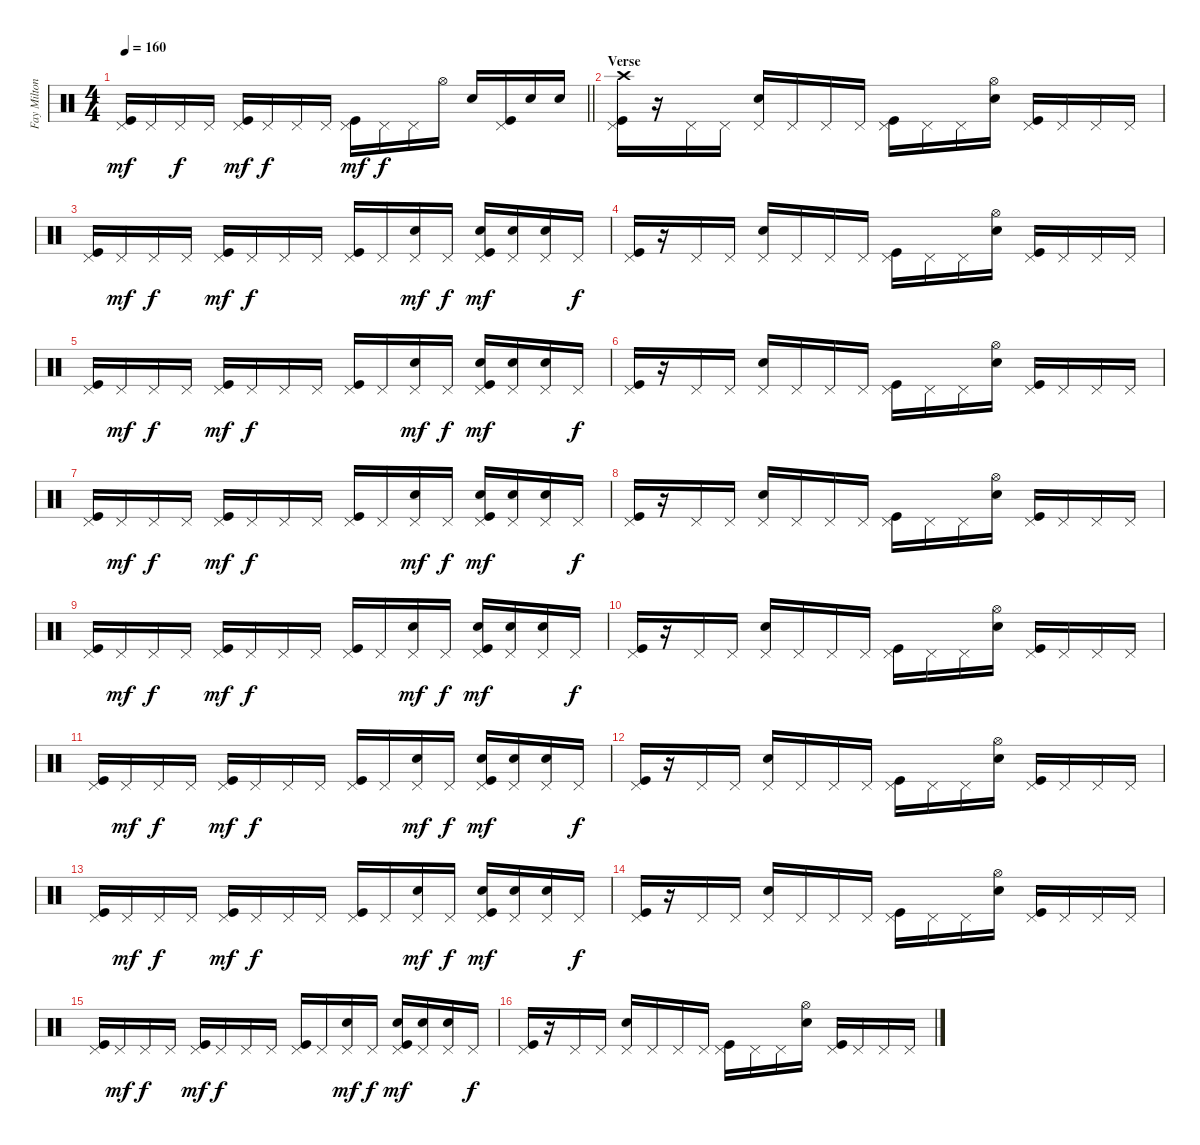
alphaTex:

\track ("Fay Milton - Drums" "Fay Milton") {instrument percussion}
\staff {score}
\articulation defaults
\ts (4 4)
\tempo 160
\clef neutral
\barLineRight lightlight
\ks c
("Pedal Hi-Hat (hit)" "Kick (hit)").16{dy mf} "Pedal Hi-Hat (hit)".16 "Pedal Hi-Hat (hit)".16{dy f} "Pedal Hi-Hat (hit)".16 ("Pedal Hi-Hat (hit)" "Kick (hit)").16{dy mf} "Pedal Hi-Hat (hit)".16{dy f} "Pedal Hi-Hat (hit)".16 "Pedal Hi-Hat (hit)".16 ("Pedal Hi-Hat (hit)" "Kick (hit)").16{dy mf} "Pedal Hi-Hat (hit)".16{dy f} "Pedal Hi-Hat (hit)".16 "Hi-Hat (open)".16 "Snare (hit) 2".16 ("Pedal Hi-Hat (hit)" "Kick (hit)").16 "Snare (hit) 2".16 "Snare (hit) 2".16 |
\section ("" "Verse")
("Crash high (hit)" "Pedal Hi-Hat (hit)" "Kick (hit)").16 r.16 "Pedal Hi-Hat (hit)".16 "Pedal Hi-Hat (hit)".16 ("Pedal Hi-Hat (hit)" "Snare (hit) 2").16 "Pedal Hi-Hat (hit)".16 "Pedal Hi-Hat (hit)".16 "Pedal Hi-Hat (hit)".16 ("Pedal Hi-Hat (hit)" "Kick (hit)").16 "Pedal Hi-Hat (hit)".16 "Pedal Hi-Hat (hit)".16 ("Hi-Hat (open)" "Snare (hit) 2").16 ("Pedal Hi-Hat (hit)" "Kick (hit)").16 "Pedal Hi-Hat (hit)".16 "Pedal Hi-Hat (hit)".16 "Pedal Hi-Hat (hit)".16 |
("Pedal Hi-Hat (hit)" "Kick (hit)").16 "Pedal Hi-Hat (hit)".16{dy mf} "Pedal Hi-Hat (hit)".16{dy f} "Pedal Hi-Hat (hit)".16 ("Pedal Hi-Hat (hit)" "Kick (hit)").16{dy mf} "Pedal Hi-Hat (hit)".16{dy f} "Pedal Hi-Hat (hit)".16 "Pedal Hi-Hat (hit)".16 ("Pedal Hi-Hat (hit)" "Kick (hit)").16 "Pedal Hi-Hat (hit)".16 ("Pedal Hi-Hat (hit)" "Snare (hit) 2").16{dy mf} "Pedal Hi-Hat (hit)".16{dy f} ("Pedal Hi-Hat (hit)" "Snare (hit) 2" "Kick (hit)").16{dy mf} ("Pedal Hi-Hat (hit)" "Snare (hit) 2").16 ("Pedal Hi-Hat (hit)" "Snare (hit) 2").16 "Pedal Hi-Hat (hit)".16{dy f} |
("Pedal Hi-Hat (hit)" "Kick (hit)").16 r.16 "Pedal Hi-Hat (hit)".16 "Pedal Hi-Hat (hit)".16 ("Pedal Hi-Hat (hit)" "Snare (hit) 2").16 "Pedal Hi-Hat (hit)".16 "Pedal Hi-Hat (hit)".16 "Pedal Hi-Hat (hit)".16 ("Pedal Hi-Hat (hit)" "Kick (hit)").16 "Pedal Hi-Hat (hit)".16 "Pedal Hi-Hat (hit)".16 ("Hi-Hat (open)" "Snare (hit) 2").16 ("Pedal Hi-Hat (hit)" "Kick (hit)").16 "Pedal Hi-Hat (hit)".16 "Pedal Hi-Hat (hit)".16 "Pedal Hi-Hat (hit)".16 |
("Pedal Hi-Hat (hit)" "Kick (hit)").16 "Pedal Hi-Hat (hit)".16{dy mf} "Pedal Hi-Hat (hit)".16{dy f} "Pedal Hi-Hat (hit)".16 ("Pedal Hi-Hat (hit)" "Kick (hit)").16{dy mf} "Pedal Hi-Hat (hit)".16{dy f} "Pedal Hi-Hat (hit)".16 "Pedal Hi-Hat (hit)".16 ("Pedal Hi-Hat (hit)" "Kick (hit)").16 "Pedal Hi-Hat (hit)".16 ("Pedal Hi-Hat (hit)" "Snare (hit) 2").16{dy mf} "Pedal Hi-Hat (hit)".16{dy f} ("Pedal Hi-Hat (hit)" "Snare (hit) 2" "Kick (hit)").16{dy mf} ("Pedal Hi-Hat (hit)" "Snare (hit) 2").16 ("Pedal Hi-Hat (hit)" "Snare (hit) 2").16 "Pedal Hi-Hat (hit)".16{dy f} |
("Pedal Hi-Hat (hit)" "Kick (hit)").16 r.16 "Pedal Hi-Hat (hit)".16 "Pedal Hi-Hat (hit)".16 ("Pedal Hi-Hat (hit)" "Snare (hit) 2").16 "Pedal Hi-Hat (hit)".16 "Pedal Hi-Hat (hit)".16 "Pedal Hi-Hat (hit)".16 ("Pedal Hi-Hat (hit)" "Kick (hit)").16 "Pedal Hi-Hat (hit)".16 "Pedal Hi-Hat (hit)".16 ("Hi-Hat (open)" "Snare (hit) 2").16 ("Pedal Hi-Hat (hit)" "Kick (hit)").16 "Pedal Hi-Hat (hit)".16 "Pedal Hi-Hat (hit)".16 "Pedal Hi-Hat (hit)".16 |
("Pedal Hi-Hat (hit)" "Kick (hit)").16 "Pedal Hi-Hat (hit)".16{dy mf} "Pedal Hi-Hat (hit)".16{dy f} "Pedal Hi-Hat (hit)".16 ("Pedal Hi-Hat (hit)" "Kick (hit)").16{dy mf} "Pedal Hi-Hat (hit)".16{dy f} "Pedal Hi-Hat (hit)".16 "Pedal Hi-Hat (hit)".16 ("Pedal Hi-Hat (hit)" "Kick (hit)").16 "Pedal Hi-Hat (hit)".16 ("Pedal Hi-Hat (hit)" "Snare (hit) 2").16{dy mf} "Pedal Hi-Hat (hit)".16{dy f} ("Pedal Hi-Hat (hit)" "Snare (hit) 2" "Kick (hit)").16{dy mf} ("Pedal Hi-Hat (hit)" "Snare (hit) 2").16 ("Pedal Hi-Hat (hit)" "Snare (hit) 2").16 "Pedal Hi-Hat (hit)".16{dy f} |
("Pedal Hi-Hat (hit)" "Kick (hit)").16 r.16 "Pedal Hi-Hat (hit)".16 "Pedal Hi-Hat (hit)".16 ("Pedal Hi-Hat (hit)" "Snare (hit) 2").16 "Pedal Hi-Hat (hit)".16 "Pedal Hi-Hat (hit)".16 "Pedal Hi-Hat (hit)".16 ("Pedal Hi-Hat (hit)" "Kick (hit)").16 "Pedal Hi-Hat (hit)".16 "Pedal Hi-Hat (hit)".16 ("Hi-Hat (open)" "Snare (hit) 2").16 ("Pedal Hi-Hat (hit)" "Kick (hit)").16 "Pedal Hi-Hat (hit)".16 "Pedal Hi-Hat (hit)".16 "Pedal Hi-Hat (hit)".16 |
("Pedal Hi-Hat (hit)" "Kick (hit)").16 "Pedal Hi-Hat (hit)".16{dy mf} "Pedal Hi-Hat (hit)".16{dy f} "Pedal Hi-Hat (hit)".16 ("Pedal Hi-Hat (hit)" "Kick (hit)").16{dy mf} "Pedal Hi-Hat (hit)".16{dy f} "Pedal Hi-Hat (hit)".16 "Pedal Hi-Hat (hit)".16 ("Pedal Hi-Hat (hit)" "Kick (hit)").16 "Pedal Hi-Hat (hit)".16 ("Pedal Hi-Hat (hit)" "Snare (hit) 2").16{dy mf} "Pedal Hi-Hat (hit)".16{dy f} ("Pedal Hi-Hat (hit)" "Snare (hit) 2" "Kick (hit)").16{dy mf} ("Pedal Hi-Hat (hit)" "Snare (hit) 2").16 ("Pedal Hi-Hat (hit)" "Snare (hit) 2").16 "Pedal Hi-Hat (hit)".16{dy f} |
("Pedal Hi-Hat (hit)" "Kick (hit)").16 r.16 "Pedal Hi-Hat (hit)".16 "Pedal Hi-Hat (hit)".16 ("Pedal Hi-Hat (hit)" "Snare (hit) 2").16 "Pedal Hi-Hat (hit)".16 "Pedal Hi-Hat (hit)".16 "Pedal Hi-Hat (hit)".16 ("Pedal Hi-Hat (hit)" "Kick (hit)").16 "Pedal Hi-Hat (hit)".16 "Pedal Hi-Hat (hit)".16 ("Hi-Hat (open)" "Snare (hit) 2").16 ("Pedal Hi-Hat (hit)" "Kick (hit)").16 "Pedal Hi-Hat (hit)".16 "Pedal Hi-Hat (hit)".16 "Pedal Hi-Hat (hit)".16 |
("Pedal Hi-Hat (hit)" "Kick (hit)").16 "Pedal Hi-Hat (hit)".16{dy mf} "Pedal Hi-Hat (hit)".16{dy f} "Pedal Hi-Hat (hit)".16 ("Pedal Hi-Hat (hit)" "Kick (hit)").16{dy mf} "Pedal Hi-Hat (hit)".16{dy f} "Pedal Hi-Hat (hit)".16 "Pedal Hi-Hat (hit)".16 ("Pedal Hi-Hat (hit)" "Kick (hit)").16 "Pedal Hi-Hat (hit)".16 ("Pedal Hi-Hat (hit)" "Snare (hit) 2").16{dy mf} "Pedal Hi-Hat (hit)".16{dy f} ("Pedal Hi-Hat (hit)" "Snare (hit) 2" "Kick (hit)").16{dy mf} ("Pedal Hi-Hat (hit)" "Snare (hit) 2").16 ("Pedal Hi-Hat (hit)" "Snare (hit) 2").16 "Pedal Hi-Hat (hit)".16{dy f} |
("Pedal Hi-Hat (hit)" "Kick (hit)").16 r.16 "Pedal Hi-Hat (hit)".16 "Pedal Hi-Hat (hit)".16 ("Pedal Hi-Hat (hit)" "Snare (hit) 2").16 "Pedal Hi-Hat (hit)".16 "Pedal Hi-Hat (hit)".16 "Pedal Hi-Hat (hit)".16 ("Pedal Hi-Hat (hit)" "Kick (hit)").16 "Pedal Hi-Hat (hit)".16 "Pedal Hi-Hat (hit)".16 ("Hi-Hat (open)" "Snare (hit) 2").16 ("Pedal Hi-Hat (hit)" "Kick (hit)").16 "Pedal Hi-Hat (hit)".16 "Pedal Hi-Hat (hit)".16 "Pedal Hi-Hat (hit)".16 |
("Pedal Hi-Hat (hit)" "Kick (hit)").16 "Pedal Hi-Hat (hit)".16{dy mf} "Pedal Hi-Hat (hit)".16{dy f} "Pedal Hi-Hat (hit)".16 ("Pedal Hi-Hat (hit)" "Kick (hit)").16{dy mf} "Pedal Hi-Hat (hit)".16{dy f} "Pedal Hi-Hat (hit)".16 "Pedal Hi-Hat (hit)".16 ("Pedal Hi-Hat (hit)" "Kick (hit)").16 "Pedal Hi-Hat (hit)".16 ("Pedal Hi-Hat (hit)" "Snare (hit) 2").16{dy mf} "Pedal Hi-Hat (hit)".16{dy f} ("Pedal Hi-Hat (hit)" "Snare (hit) 2" "Kick (hit)").16{dy mf} ("Pedal Hi-Hat (hit)" "Snare (hit) 2").16 ("Pedal Hi-Hat (hit)" "Snare (hit) 2").16 "Pedal Hi-Hat (hit)".16{dy f} |
("Pedal Hi-Hat (hit)" "Kick (hit)").16 r.16 "Pedal Hi-Hat (hit)".16 "Pedal Hi-Hat (hit)".16 ("Pedal Hi-Hat (hit)" "Snare (hit) 2").16 "Pedal Hi-Hat (hit)".16 "Pedal Hi-Hat (hit)".16 "Pedal Hi-Hat (hit)".16 ("Pedal Hi-Hat (hit)" "Kick (hit)").16 "Pedal Hi-Hat (hit)".16 "Pedal Hi-Hat (hit)".16 ("Hi-Hat (open)" "Snare (hit) 2").16 ("Pedal Hi-Hat (hit)" "Kick (hit)").16 "Pedal Hi-Hat (hit)".16 "Pedal Hi-Hat (hit)".16 "Pedal Hi-Hat (hit)".16 |
("Pedal Hi-Hat (hit)" "Kick (hit)").16 "Pedal Hi-Hat (hit)".16{dy mf} "Pedal Hi-Hat (hit)".16{dy f} "Pedal Hi-Hat (hit)".16 ("Pedal Hi-Hat (hit)" "Kick (hit)").16{dy mf} "Pedal Hi-Hat (hit)".16{dy f} "Pedal Hi-Hat (hit)".16 "Pedal Hi-Hat (hit)".16 ("Pedal Hi-Hat (hit)" "Kick (hit)").16 "Pedal Hi-Hat (hit)".16 ("Pedal Hi-Hat (hit)" "Snare (hit) 2").16{dy mf} "Pedal Hi-Hat (hit)".16{dy f} ("Pedal Hi-Hat (hit)" "Snare (hit) 2" "Kick (hit)").16{dy mf} ("Pedal Hi-Hat (hit)" "Snare (hit) 2").16 ("Pedal Hi-Hat (hit)" "Snare (hit) 2").16 "Pedal Hi-Hat (hit)".16{dy f} |
("Pedal Hi-Hat (hit)" "Kick (hit)").16 r.16 "Pedal Hi-Hat (hit)".16 "Pedal Hi-Hat (hit)".16 ("Pedal Hi-Hat (hit)" "Snare (hit) 2").16 "Pedal Hi-Hat (hit)".16 "Pedal Hi-Hat (hit)".16 "Pedal Hi-Hat (hit)".16 ("Pedal Hi-Hat (hit)" "Kick (hit)").16 "Pedal Hi-Hat (hit)".16 "Pedal Hi-Hat (hit)".16 ("Hi-Hat (open)" "Snare (hit) 2").16 ("Pedal Hi-Hat (hit)" "Kick (hit)").16 "Pedal Hi-Hat (hit)".16 "Pedal Hi-Hat (hit)".16 "Pedal Hi-Hat (hit)".16
